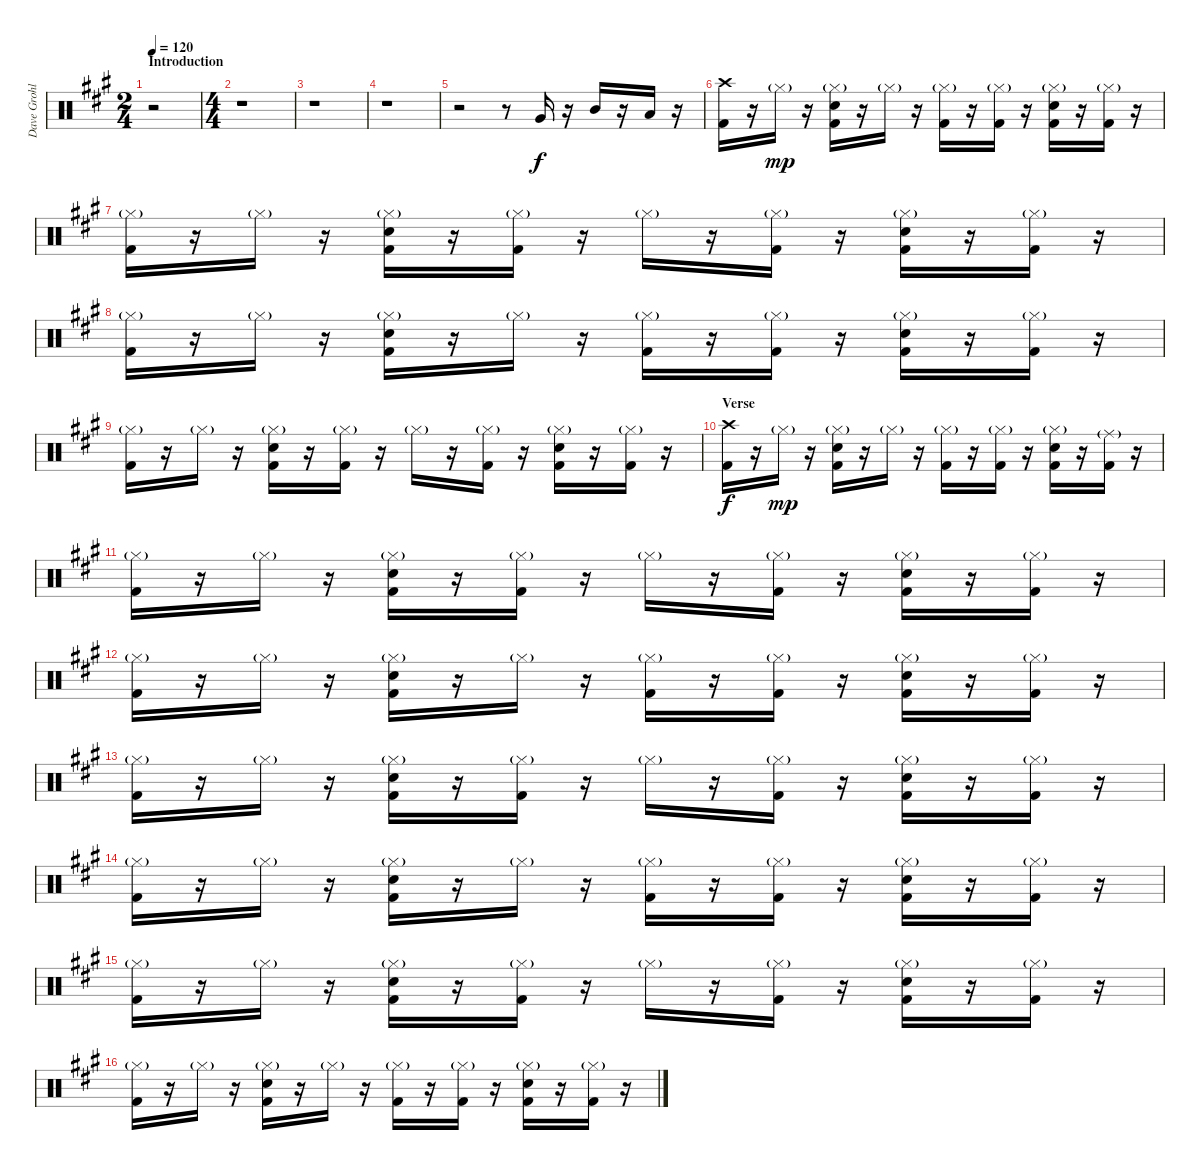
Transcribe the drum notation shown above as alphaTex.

\track ("Dave Grohl (Drums)" "Dave Grohl") {instrument percussion}
\staff {score}
\articulation defaults
\ts (2 4)
\section ("" "Introduction")
\tempo 120
\clef neutral
\ks a
r.2{dy f} |
\ts (4 4)
r.1 |
r.1 |
r.1 |
r.2 r.8 "Very Low Tom (hit)".16 r.16 "Mid Tom (hit)".16 r.16 "Low Floor Tom (hit)".16 r.16 |
("Crash high (hit)" "Kick (hit) 2").16 r.16 "Hi-Hat (closed)"{g}.16{dy mp} r.16 ("Hi-Hat (closed)"{g} "Snare (hit) 2" "Kick (hit) 2").16 r.16 "Hi-Hat (closed)"{g}.16 r.16 ("Hi-Hat (closed)"{g} "Kick (hit) 2").16 r.16 ("Hi-Hat (closed)"{g} "Kick (hit) 2").16 r.16 ("Hi-Hat (closed)"{g} "Snare (hit) 2" "Kick (hit) 2").16 r.16 ("Hi-Hat (closed)"{g} "Kick (hit) 2").16 r.16 |
("Hi-Hat (closed)"{g} "Kick (hit) 2").16 r.16 "Hi-Hat (closed)"{g}.16 r.16 ("Hi-Hat (closed)"{g} "Snare (hit) 2" "Kick (hit) 2").16 r.16 ("Hi-Hat (closed)"{g} "Kick (hit) 2").16 r.16 "Hi-Hat (closed)"{g}.16 r.16 ("Hi-Hat (closed)"{g} "Kick (hit) 2").16 r.16 ("Hi-Hat (closed)"{g} "Snare (hit) 2" "Kick (hit) 2").16 r.16 ("Hi-Hat (closed)"{g} "Kick (hit) 2").16 r.16 |
("Hi-Hat (closed)"{g} "Kick (hit) 2").16 r.16 "Hi-Hat (closed)"{g}.16 r.16 ("Hi-Hat (closed)"{g} "Snare (hit) 2" "Kick (hit) 2").16 r.16 "Hi-Hat (closed)"{g}.16 r.16 ("Hi-Hat (closed)"{g} "Kick (hit) 2").16 r.16 ("Hi-Hat (closed)"{g} "Kick (hit) 2").16 r.16 ("Hi-Hat (closed)"{g} "Snare (hit) 2" "Kick (hit) 2").16 r.16 ("Hi-Hat (closed)"{g} "Kick (hit) 2").16 r.16 |
("Hi-Hat (closed)"{g} "Kick (hit) 2").16 r.16 "Hi-Hat (closed)"{g}.16 r.16 ("Hi-Hat (closed)"{g} "Snare (hit) 2" "Kick (hit) 2").16 r.16 ("Hi-Hat (closed)"{g} "Kick (hit) 2").16 r.16 "Hi-Hat (closed)"{g}.16 r.16 ("Hi-Hat (closed)"{g} "Kick (hit) 2").16 r.16 ("Hi-Hat (closed)"{g} "Snare (hit) 2" "Kick (hit) 2").16 r.16 ("Hi-Hat (closed)"{g} "Kick (hit) 2").16 r.16 |
\section ("" "Verse")
("Crash high (hit)" "Kick (hit) 2").16{dy f} r.16 "Hi-Hat (closed)"{g}.16{dy mp} r.16 ("Hi-Hat (closed)"{g} "Snare (hit) 2" "Kick (hit) 2").16 r.16 "Hi-Hat (closed)"{g}.16 r.16 ("Hi-Hat (closed)"{g} "Kick (hit) 2").16 r.16 ("Hi-Hat (closed)"{g} "Kick (hit) 2").16 r.16 ("Hi-Hat (closed)"{g} "Snare (hit) 2" "Kick (hit) 2").16 r.16 ("Ride (middle)"{g} "Kick (hit) 2").16 r.16 |
("Hi-Hat (closed)"{g} "Kick (hit) 2").16 r.16 "Hi-Hat (closed)"{g}.16 r.16 ("Hi-Hat (closed)"{g} "Snare (hit) 2" "Kick (hit) 2").16 r.16 ("Hi-Hat (closed)"{g} "Kick (hit) 2").16 r.16 "Hi-Hat (closed)"{g}.16 r.16 ("Hi-Hat (closed)"{g} "Kick (hit) 2").16 r.16 ("Hi-Hat (closed)"{g} "Snare (hit) 2" "Kick (hit) 2").16 r.16 ("Hi-Hat (closed)"{g} "Kick (hit) 2").16 r.16 |
("Hi-Hat (closed)"{g} "Kick (hit) 2").16 r.16 "Hi-Hat (closed)"{g}.16 r.16 ("Hi-Hat (closed)"{g} "Snare (hit) 2" "Kick (hit) 2").16 r.16 "Hi-Hat (closed)"{g}.16 r.16 ("Hi-Hat (closed)"{g} "Kick (hit) 2").16 r.16 ("Hi-Hat (closed)"{g} "Kick (hit) 2").16 r.16 ("Hi-Hat (closed)"{g} "Snare (hit) 2" "Kick (hit) 2").16 r.16 ("Hi-Hat (closed)"{g} "Kick (hit) 2").16 r.16 |
("Hi-Hat (closed)"{g} "Kick (hit) 2").16 r.16 "Hi-Hat (closed)"{g}.16 r.16 ("Hi-Hat (closed)"{g} "Snare (hit) 2" "Kick (hit) 2").16 r.16 ("Hi-Hat (closed)"{g} "Kick (hit) 2").16 r.16 "Hi-Hat (closed)"{g}.16 r.16 ("Hi-Hat (closed)"{g} "Kick (hit) 2").16 r.16 ("Hi-Hat (closed)"{g} "Snare (hit) 2" "Kick (hit) 2").16 r.16 ("Hi-Hat (closed)"{g} "Kick (hit) 2").16 r.16 |
("Hi-Hat (closed)"{g} "Kick (hit) 2").16 r.16 "Hi-Hat (closed)"{g}.16 r.16 ("Hi-Hat (closed)"{g} "Snare (hit) 2" "Kick (hit) 2").16 r.16 "Hi-Hat (closed)"{g}.16 r.16 ("Hi-Hat (closed)"{g} "Kick (hit) 2").16 r.16 ("Hi-Hat (closed)"{g} "Kick (hit) 2").16 r.16 ("Hi-Hat (closed)"{g} "Snare (hit) 2" "Kick (hit) 2").16 r.16 ("Hi-Hat (closed)"{g} "Kick (hit) 2").16 r.16 |
("Hi-Hat (closed)"{g} "Kick (hit) 2").16 r.16 "Hi-Hat (closed)"{g}.16 r.16 ("Hi-Hat (closed)"{g} "Snare (hit) 2" "Kick (hit) 2").16 r.16 ("Hi-Hat (closed)"{g} "Kick (hit) 2").16 r.16 "Hi-Hat (closed)"{g}.16 r.16 ("Hi-Hat (closed)"{g} "Kick (hit) 2").16 r.16 ("Hi-Hat (closed)"{g} "Snare (hit) 2" "Kick (hit) 2").16 r.16 ("Hi-Hat (closed)"{g} "Kick (hit) 2").16 r.16 |
("Hi-Hat (closed)"{g} "Kick (hit) 2").16 r.16 "Hi-Hat (closed)"{g}.16 r.16 ("Hi-Hat (closed)"{g} "Snare (hit) 2" "Kick (hit) 2").16 r.16 "Hi-Hat (closed)"{g}.16 r.16 ("Hi-Hat (closed)"{g} "Kick (hit) 2").16 r.16 ("Hi-Hat (closed)"{g} "Kick (hit) 2").16 r.16 ("Hi-Hat (closed)"{g} "Snare (hit) 2" "Kick (hit) 2").16 r.16 ("Hi-Hat (closed)"{g} "Kick (hit) 2").16 r.16
